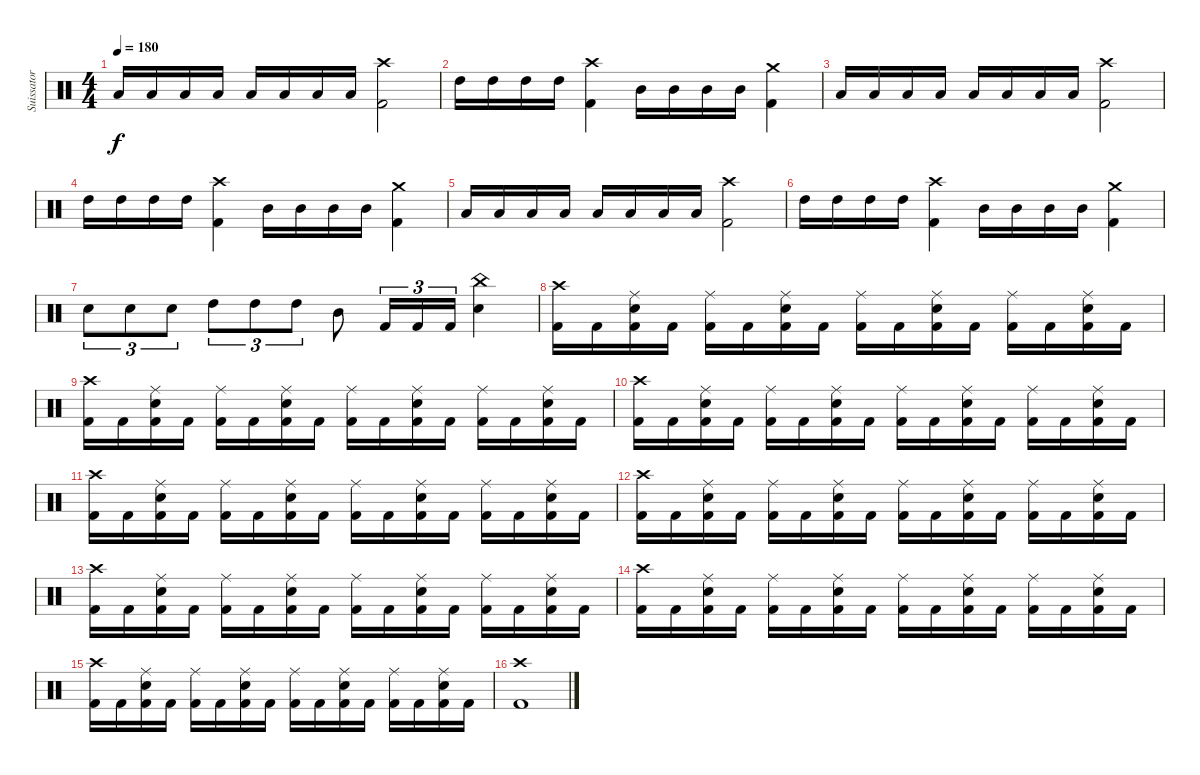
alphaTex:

\track ("Suissator" "Suissator") {instrument percussion}
\staff {score}
\articulation defaults
\ts (4 4)
\tempo 180
\clef neutral
\ks c "Low Tom (hit)".16{dy f} "Low Tom (hit)".16 "Low Tom (hit)".16 "Low Tom (hit)".16 "Low Tom (hit)".16 "Low Tom (hit)".16 "Low Tom (hit)".16 "Low Tom (hit)".16
("Kick (hit) 2" "Crash high (hit)").2 |
"High Tom (hit)".16 "High Tom (hit)".16 "High Tom (hit)".16 "High Tom (hit)".16 ("Kick (hit) 2" "Crash high (hit)").4 "Mid Tom (hit)".16 "Mid Tom (hit)".16 "Mid Tom (hit)".16 "Mid Tom (hit)".16 ("Kick (hit) 2" "Crash medium (hit)").4 |
"Low Tom (hit)".16 "Low Tom (hit)".16 "Low Tom (hit)".16 "Low Tom (hit)".16 "Low Tom (hit)".16 "Low Tom (hit)".16 "Low Tom (hit)".16 "Low Tom (hit)".16 ("Kick (hit) 2" "Crash high (hit)").2 |
"High Tom (hit)".16 "High Tom (hit)".16 "High Tom (hit)".16 "High Tom (hit)".16 ("Kick (hit) 2" "Crash high (hit)").4 "Mid Tom (hit)".16 "Mid Tom (hit)".16 "Mid Tom (hit)".16 "Mid Tom (hit)".16 ("Kick (hit) 2" "Crash medium (hit)").4 |
"Low Tom (hit)".16 "Low Tom (hit)".16 "Low Tom (hit)".16 "Low Tom (hit)".16 "Low Tom (hit)".16 "Low Tom (hit)".16 "Low Tom (hit)".16 "Low Tom (hit)".16 ("Kick (hit) 2" "Crash high (hit)").2 |
"High Tom (hit)".16 "High Tom (hit)".16 "High Tom (hit)".16 "High Tom (hit)".16 ("Kick (hit) 2" "Crash high (hit)").4 "Mid Tom (hit)".16 "Mid Tom (hit)".16 "Mid Tom (hit)".16 "Mid Tom (hit)".16 ("Kick (hit) 2" "Crash medium (hit)").4 |
"Electric Snare (hit)".8{tu (3 2)} "Electric Snare (hit)".8{tu (3 2)} "Electric Snare (hit)".8{tu (3 2)} "High Tom (hit)".8{tu (3 2)} "High Tom (hit)".8{tu (3 2)} "High Tom (hit)".8{tu (3 2)} "Mid Tom (hit)".8 "Kick (hit) 2".16{tu (3 2)} "Kick (hit) 2".16{tu (3 2)} "Kick (hit) 2".16{tu (3 2)} ("Electric Snare (hit)" "China (hit)").4 |
("Kick (hit) 2" "Crash high (hit)").16 "Kick (hit) 2".16 ("Kick (hit) 2" "Electric Snare (hit)" "Ride (middle)").16 "Kick (hit) 2".16 ("Kick (hit) 2" "Ride (middle)").16 "Kick (hit) 2".16 ("Kick (hit) 2" "Electric Snare (hit)" "Ride (middle)").16 "Kick (hit) 2".16 ("Kick (hit) 2" "Ride (middle)").16 "Kick (hit) 2".16 ("Kick (hit) 2" "Electric Snare (hit)" "Ride (middle)").16 "Kick (hit) 2".16 ("Kick (hit) 2" "Ride (middle)").16 "Kick (hit) 2".16 ("Kick (hit) 2" "Electric Snare (hit)" "Ride (middle)").16 "Kick (hit) 2".16 |
("Kick (hit) 2" "Crash high (hit)").16 "Kick (hit) 2".16 ("Kick (hit) 2" "Electric Snare (hit)" "Ride (middle)").16 "Kick (hit) 2".16 ("Kick (hit) 2" "Ride (middle)").16 "Kick (hit) 2".16 ("Kick (hit) 2" "Electric Snare (hit)" "Ride (middle)").16 "Kick (hit) 2".16 ("Kick (hit) 2" "Ride (middle)").16 "Kick (hit) 2".16 ("Kick (hit) 2" "Electric Snare (hit)" "Ride (middle)").16 "Kick (hit) 2".16 ("Kick (hit) 2" "Ride (middle)").16 "Kick (hit) 2".16 ("Kick (hit) 2" "Electric Snare (hit)" "Ride (middle)").16 "Kick (hit) 2".16 |
("Kick (hit) 2" "Crash high (hit)").16 "Kick (hit) 2".16 ("Kick (hit) 2" "Electric Snare (hit)" "Ride (middle)").16 "Kick (hit) 2".16 ("Kick (hit) 2" "Ride (middle)").16 "Kick (hit) 2".16 ("Kick (hit) 2" "Electric Snare (hit)" "Ride (middle)").16 "Kick (hit) 2".16 ("Kick (hit) 2" "Ride (middle)").16 "Kick (hit) 2".16 ("Kick (hit) 2" "Electric Snare (hit)" "Ride (middle)").16 "Kick (hit) 2".16 ("Kick (hit) 2" "Ride (middle)").16 "Kick (hit) 2".16 ("Kick (hit) 2" "Electric Snare (hit)" "Ride (middle)").16 "Kick (hit) 2".16 |
("Kick (hit) 2" "Crash high (hit)").16 "Kick (hit) 2".16 ("Kick (hit) 2" "Electric Snare (hit)" "Ride (middle)").16 "Kick (hit) 2".16 ("Kick (hit) 2" "Ride (middle)").16 "Kick (hit) 2".16 ("Kick (hit) 2" "Electric Snare (hit)" "Ride (middle)").16 "Kick (hit) 2".16 ("Kick (hit) 2" "Ride (middle)").16 "Kick (hit) 2".16 ("Kick (hit) 2" "Electric Snare (hit)" "Ride (middle)").16 "Kick (hit) 2".16 ("Kick (hit) 2" "Ride (middle)").16 "Kick (hit) 2".16 ("Kick (hit) 2" "Electric Snare (hit)" "Ride (middle)").16 "Kick (hit) 2".16 |
("Kick (hit) 2" "Crash high (hit)").16 "Kick (hit) 2".16 ("Kick (hit) 2" "Electric Snare (hit)" "Ride (middle)").16 "Kick (hit) 2".16 ("Kick (hit) 2" "Ride (middle)").16 "Kick (hit) 2".16 ("Kick (hit) 2" "Electric Snare (hit)" "Ride (middle)").16 "Kick (hit) 2".16 ("Kick (hit) 2" "Ride (middle)").16 "Kick (hit) 2".16 ("Kick (hit) 2" "Electric Snare (hit)" "Ride (middle)").16 "Kick (hit) 2".16 ("Kick (hit) 2" "Ride (middle)").16 "Kick (hit) 2".16 ("Kick (hit) 2" "Electric Snare (hit)" "Ride (middle)").16 "Kick (hit) 2".16 |
("Kick (hit) 2" "Crash high (hit)").16 "Kick (hit) 2".16 ("Kick (hit) 2" "Electric Snare (hit)" "Ride (middle)").16 "Kick (hit) 2".16 ("Kick (hit) 2" "Ride (middle)").16 "Kick (hit) 2".16 ("Kick (hit) 2" "Electric Snare (hit)" "Ride (middle)").16 "Kick (hit) 2".16 ("Kick (hit) 2" "Ride (middle)").16 "Kick (hit) 2".16 ("Kick (hit) 2" "Electric Snare (hit)" "Ride (middle)").16 "Kick (hit) 2".16 ("Kick (hit) 2" "Ride (middle)").16 "Kick (hit) 2".16 ("Kick (hit) 2" "Electric Snare (hit)" "Ride (middle)").16 "Kick (hit) 2".16 |
("Kick (hit) 2" "Crash high (hit)").16 "Kick (hit) 2".16 ("Kick (hit) 2" "Electric Snare (hit)" "Ride (middle)").16 "Kick (hit) 2".16 ("Kick (hit) 2" "Ride (middle)").16 "Kick (hit) 2".16 ("Kick (hit) 2" "Electric Snare (hit)" "Ride (middle)").16 "Kick (hit) 2".16 ("Kick (hit) 2" "Ride (middle)").16 "Kick (hit) 2".16 ("Kick (hit) 2" "Electric Snare (hit)" "Ride (middle)").16 "Kick (hit) 2".16 ("Kick (hit) 2" "Ride (middle)").16 "Kick (hit) 2".16 ("Kick (hit) 2" "Electric Snare (hit)" "Ride (middle)").16 "Kick (hit) 2".16 |
("Kick (hit) 2" "Crash high (hit)").16 "Kick (hit) 2".16 ("Kick (hit) 2" "Electric Snare (hit)" "Ride (middle)").16 "Kick (hit) 2".16 ("Kick (hit) 2" "Ride (middle)").16 "Kick (hit) 2".16 ("Kick (hit) 2" "Electric Snare (hit)" "Ride (middle)").16 "Kick (hit) 2".16 ("Kick (hit) 2" "Ride (middle)").16 "Kick (hit) 2".16 ("Kick (hit) 2" "Electric Snare (hit)" "Ride (middle)").16 "Kick (hit) 2".16 ("Kick (hit) 2" "Ride (middle)").16 "Kick (hit) 2".16 ("Kick (hit) 2" "Electric Snare (hit)" "Ride (middle)").16 "Kick (hit) 2".16 |
("Kick (hit) 2" "Crash high (hit)").1
